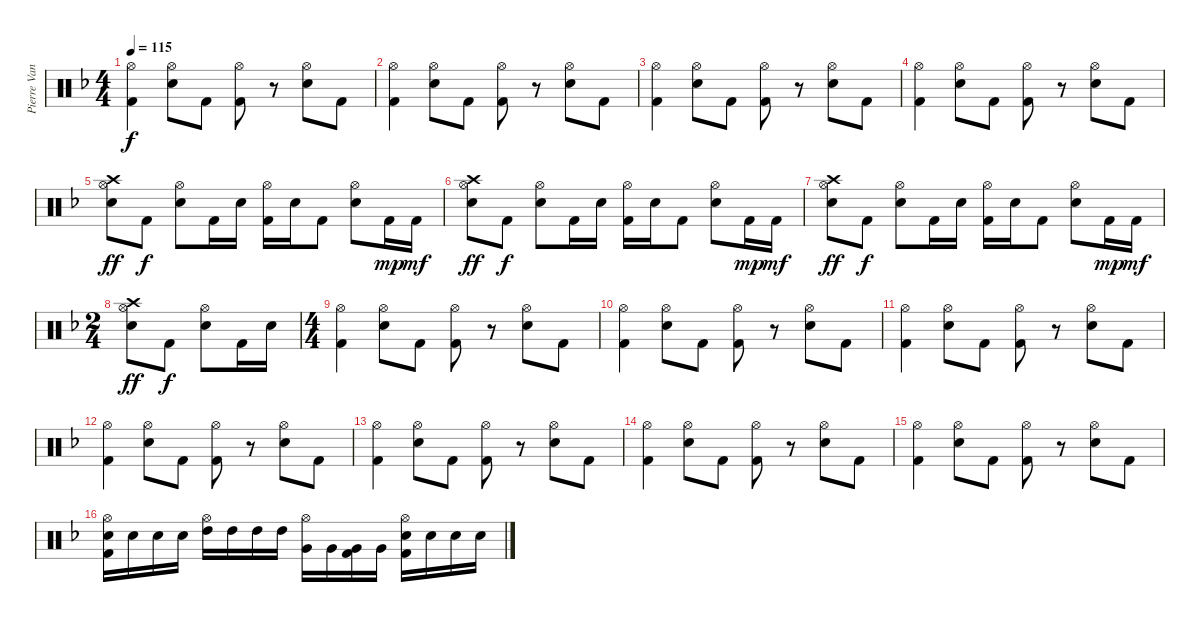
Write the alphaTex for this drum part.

\track ("Pierre Van Der Linden" "Pierre Van") {instrument percussion}
\staff {score}
\articulation defaults
\ts (4 4)
\tempo 115
\clef neutral
\ks f
("Hi-Hat (open)" "Kick (hit) 2").4{dy f} ("Hi-Hat (open)" "Electric Snare (hit)").8 "Kick (hit) 2".8 ("Hi-Hat (open)" "Kick (hit) 2").8 r.8 ("Hi-Hat (open)" "Electric Snare (hit)").8 "Kick (hit) 2".8 |
("Hi-Hat (open)" "Kick (hit) 2").4 ("Hi-Hat (open)" "Electric Snare (hit)").8 "Kick (hit) 2".8 ("Hi-Hat (open)" "Kick (hit) 2").8 r.8 ("Hi-Hat (open)" "Electric Snare (hit)").8 "Kick (hit) 2".8 |
("Hi-Hat (open)" "Kick (hit) 2").4 ("Hi-Hat (open)" "Electric Snare (hit)").8 "Kick (hit) 2".8 ("Hi-Hat (open)" "Kick (hit) 2").8 r.8 ("Hi-Hat (open)" "Electric Snare (hit)").8 "Kick (hit) 2".8 |
("Hi-Hat (open)" "Kick (hit) 2").4 ("Hi-Hat (open)" "Electric Snare (hit)").8 "Kick (hit) 2".8 ("Hi-Hat (open)" "Kick (hit) 2").8 r.8 ("Hi-Hat (open)" "Electric Snare (hit)").8 "Kick (hit) 2".8 |
("Hi-Hat (open)" "Crash high (hit)" "Electric Snare (hit)").8{dy ff} "Kick (hit) 2".8{dy f} ("Hi-Hat (open)" "Electric Snare (hit)").8 "Kick (hit) 2".16 "Electric Snare (hit)".16 ("Hi-Hat (open)" "Kick (hit) 2").16 "Electric Snare (hit)".16 "Kick (hit) 2".8 ("Hi-Hat (open)" "Electric Snare (hit)").8 "Kick (hit) 2".16{dy mp} "Kick (hit) 2".16{dy mf} |
("Hi-Hat (open)" "Crash high (hit)" "Electric Snare (hit)").8{dy ff} "Kick (hit) 2".8{dy f} ("Hi-Hat (open)" "Electric Snare (hit)").8 "Kick (hit) 2".16 "Electric Snare (hit)".16 ("Hi-Hat (open)" "Kick (hit) 2").16 "Electric Snare (hit)".16 "Kick (hit) 2".8 ("Hi-Hat (open)" "Electric Snare (hit)").8 "Kick (hit) 2".16{dy mp} "Kick (hit) 2".16{dy mf} |
("Hi-Hat (open)" "Crash high (hit)" "Electric Snare (hit)").8{dy ff} "Kick (hit) 2".8{dy f} ("Hi-Hat (open)" "Electric Snare (hit)").8 "Kick (hit) 2".16 "Electric Snare (hit)".16 ("Hi-Hat (open)" "Kick (hit) 2").16 "Electric Snare (hit)".16 "Kick (hit) 2".8 ("Hi-Hat (open)" "Electric Snare (hit)").8 "Kick (hit) 2".16{dy mp} "Kick (hit) 2".16{dy mf} |
\ts (2 4)
("Hi-Hat (open)" "Crash high (hit)" "Electric Snare (hit)").8{dy ff} "Kick (hit) 2".8{dy f} ("Hi-Hat (open)" "Electric Snare (hit)").8 "Kick (hit) 2".16 "Electric Snare (hit)".16 |
\ts (4 4)
("Hi-Hat (open)" "Kick (hit) 2").4 ("Hi-Hat (open)" "Electric Snare (hit)").8 "Kick (hit) 2".8 ("Hi-Hat (open)" "Kick (hit) 2").8 r.8 ("Hi-Hat (open)" "Electric Snare (hit)").8 "Kick (hit) 2".8 |
("Hi-Hat (open)" "Kick (hit) 2").4 ("Hi-Hat (open)" "Electric Snare (hit)").8 "Kick (hit) 2".8 ("Hi-Hat (open)" "Kick (hit) 2").8 r.8 ("Hi-Hat (open)" "Electric Snare (hit)").8 "Kick (hit) 2".8 |
("Hi-Hat (open)" "Kick (hit) 2").4 ("Hi-Hat (open)" "Electric Snare (hit)").8 "Kick (hit) 2".8 ("Hi-Hat (open)" "Kick (hit) 2").8 r.8 ("Hi-Hat (open)" "Electric Snare (hit)").8 "Kick (hit) 2".8 |
("Hi-Hat (open)" "Kick (hit) 2").4 ("Hi-Hat (open)" "Electric Snare (hit)").8 "Kick (hit) 2".8 ("Hi-Hat (open)" "Kick (hit) 2").8 r.8 ("Hi-Hat (open)" "Electric Snare (hit)").8 "Kick (hit) 2".8 |
("Hi-Hat (open)" "Kick (hit) 2").4 ("Hi-Hat (open)" "Electric Snare (hit)").8 "Kick (hit) 2".8 ("Hi-Hat (open)" "Kick (hit) 2").8 r.8 ("Hi-Hat (open)" "Electric Snare (hit)").8 "Kick (hit) 2".8 |
("Hi-Hat (open)" "Kick (hit) 2").4 ("Hi-Hat (open)" "Electric Snare (hit)").8 "Kick (hit) 2".8 ("Hi-Hat (open)" "Kick (hit) 2").8 r.8 ("Hi-Hat (open)" "Electric Snare (hit)").8 "Kick (hit) 2".8 |
("Hi-Hat (open)" "Kick (hit) 2").4 ("Hi-Hat (open)" "Electric Snare (hit)").8 "Kick (hit) 2".8 ("Hi-Hat (open)" "Kick (hit) 2").8 r.8 ("Hi-Hat (open)" "Electric Snare (hit)").8 "Kick (hit) 2".8 |
("Hi-Hat (open)" "Electric Snare (hit)" "Kick (hit) 2").16 "Electric Snare (hit)".16 "Electric Snare (hit)".16 "Electric Snare (hit)".16 ("Hi-Hat (open)" "High Tom (hit)").16 "High Tom (hit)".16 "High Tom (hit)".16 "High Tom (hit)".16 ("Hi-Hat (open)" "Very Low Tom (hit)").16 "Very Low Tom (hit)".16 ("Very Low Tom (hit)" "Kick (hit) 2").16 "Very Low Tom (hit)".16 ("Hi-Hat (open)" "Electric Snare (hit)" "Kick (hit) 2").16 "Electric Snare (hit)".16 "Electric Snare (hit)".16 "Electric Snare (hit)".16
